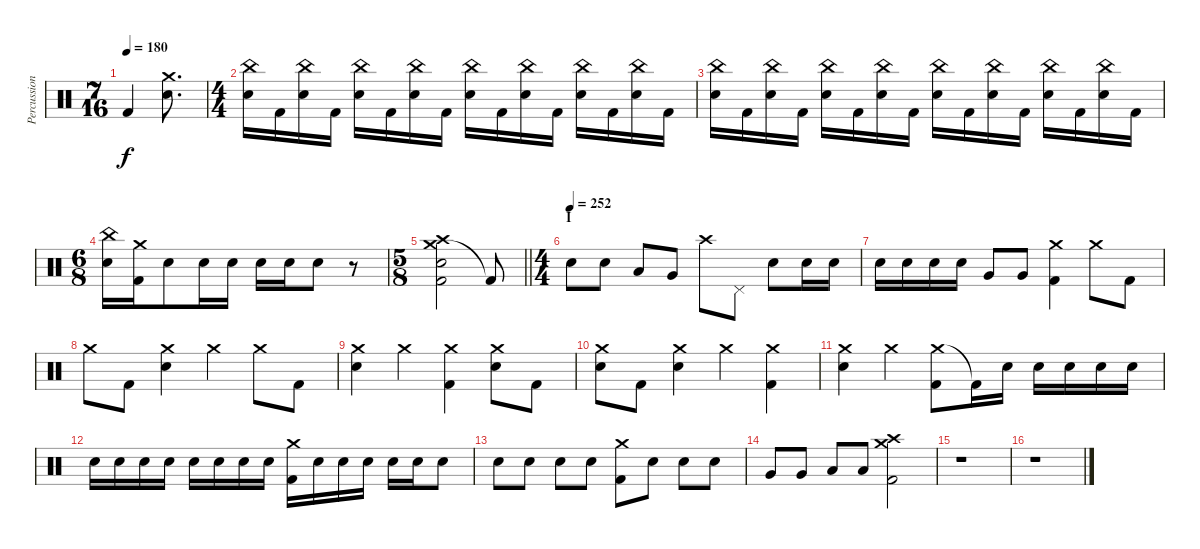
\track ("Percussion" "Percussion") {instrument percussion}
\staff {score}
\articulation defaults
\ts (7 16)
\tempo 180
\clef neutral
\ks c "Kick (hit) 2"{t}.4{dy f}
("Crash medium (hit)" "Electric Snare (hit)").8{d} |
\ts (4 4)
("China (hit)" "Electric Snare (hit)").16 "Kick (hit) 2".16 ("China (hit)" "Electric Snare (hit)").16 "Kick (hit) 2".16 ("China (hit)" "Electric Snare (hit)").16 "Kick (hit) 2".16 ("China (hit)" "Electric Snare (hit)").16 "Kick (hit) 2".16 ("China (hit)" "Electric Snare (hit)").16 "Kick (hit) 2".16 ("China (hit)" "Electric Snare (hit)").16 "Kick (hit) 2".16 ("China (hit)" "Electric Snare (hit)").16 "Kick (hit) 2".16 ("China (hit)" "Electric Snare (hit)").16 "Kick (hit) 2".16 |
("China (hit)" "Electric Snare (hit)").16 "Kick (hit) 2".16 ("China (hit)" "Electric Snare (hit)").16 "Kick (hit) 2".16 ("China (hit)" "Electric Snare (hit)").16 "Kick (hit) 2".16 ("China (hit)" "Electric Snare (hit)").16 "Kick (hit) 2".16 ("China (hit)" "Electric Snare (hit)").16 "Kick (hit) 2".16 ("China (hit)" "Electric Snare (hit)").16 "Kick (hit) 2".16 ("China (hit)" "Electric Snare (hit)").16 "Kick (hit) 2".16 ("China (hit)" "Electric Snare (hit)").16 "Kick (hit) 2".16 |
\ts (6 8)
("China (hit)" "Electric Snare (hit)").16 ("Crash medium (hit)" "Kick (hit) 2").16 "Electric Snare (hit)".8 "Electric Snare (hit)".16 "Electric Snare (hit)".16 "Electric Snare (hit)".16 "Electric Snare (hit)".16 "Electric Snare (hit)".8 r.8 |
\ts (5 8)
\barLineRight lightlight
("Crash medium (hit)" "Crash high (hit)" "Electric Snare (hit)" "Kick (hit) 2").2 "Kick (hit) 2"{t}.8 |
\ts (4 4)
\section ("" "I")
\tempo (252)
"Electric Snare (hit)".8{volume 12} "Electric Snare (hit)".8 "Low Tom (hit)".8 "Very Low Tom (hit)".8 "Crash high (hit)".8 "Pedal Hi-Hat (hit)".8 "Electric Snare (hit)".8 "Electric Snare (hit)".16 "Electric Snare (hit)".16 |
"Electric Snare (hit)".16 "Electric Snare (hit)".16 "Electric Snare (hit)".16 "Electric Snare (hit)".16 "Very Low Tom (hit)".8 "Very Low Tom (hit)".8 ("Crash medium (hit)" "Kick (hit) 2").4 "Crash medium (hit)".8 "Kick (hit) 2".8 |
"Crash medium (hit)".8 "Kick (hit) 2".8 ("Crash medium (hit)" "Electric Snare (hit)").4 "Crash medium (hit)".4 "Crash medium (hit)".8 "Kick (hit) 2".8 |
("Crash medium (hit)" "Electric Snare (hit)").4 "Crash medium (hit)".4 ("Crash medium (hit)" "Kick (hit) 2").4 ("Crash medium (hit)" "Electric Snare (hit)").8 "Kick (hit) 2".8 |
("Crash medium (hit)" "Electric Snare (hit)").8 "Kick (hit) 2".8 ("Crash medium (hit)" "Electric Snare (hit)").4 "Crash medium (hit)".4 ("Crash medium (hit)" "Kick (hit) 2").4 |
("Crash medium (hit)" "Electric Snare (hit)").4 "Crash medium (hit)".4 ("Crash medium (hit)" "Kick (hit) 2").8 "Kick (hit) 2"{t}.16 "Electric Snare (hit)".16 "Electric Snare (hit)".16 "Electric Snare (hit)".16 "Electric Snare (hit)".16 "Electric Snare (hit)".16 |
"Electric Snare (hit)".16 "Electric Snare (hit)".16 "Electric Snare (hit)".16 "Electric Snare (hit)".16 "Electric Snare (hit)".16 "Electric Snare (hit)".16 "Electric Snare (hit)".16 "Electric Snare (hit)".16 ("Crash medium (hit)" "Kick (hit) 2").16 "Electric Snare (hit)".16 "Electric Snare (hit)".16 "Electric Snare (hit)".16 "Electric Snare (hit)".16 "Electric Snare (hit)".16 "Electric Snare (hit)".8 |
"Electric Snare (hit)".8 "Electric Snare (hit)".8 "Electric Snare (hit)".8 "Electric Snare (hit)".8 ("Crash medium (hit)" "Kick (hit) 2").8 "Electric Snare (hit)".8 "Electric Snare (hit)".8 "Electric Snare (hit)".8 |
"Very Low Tom (hit)".8 "Very Low Tom (hit)".8 "Low Floor Tom (hit)".8 "Low Floor Tom (hit)".8 ("Crash medium (hit)" "Crash high (hit)" "Kick (hit) 2").2 |
r.1 |
r.1
